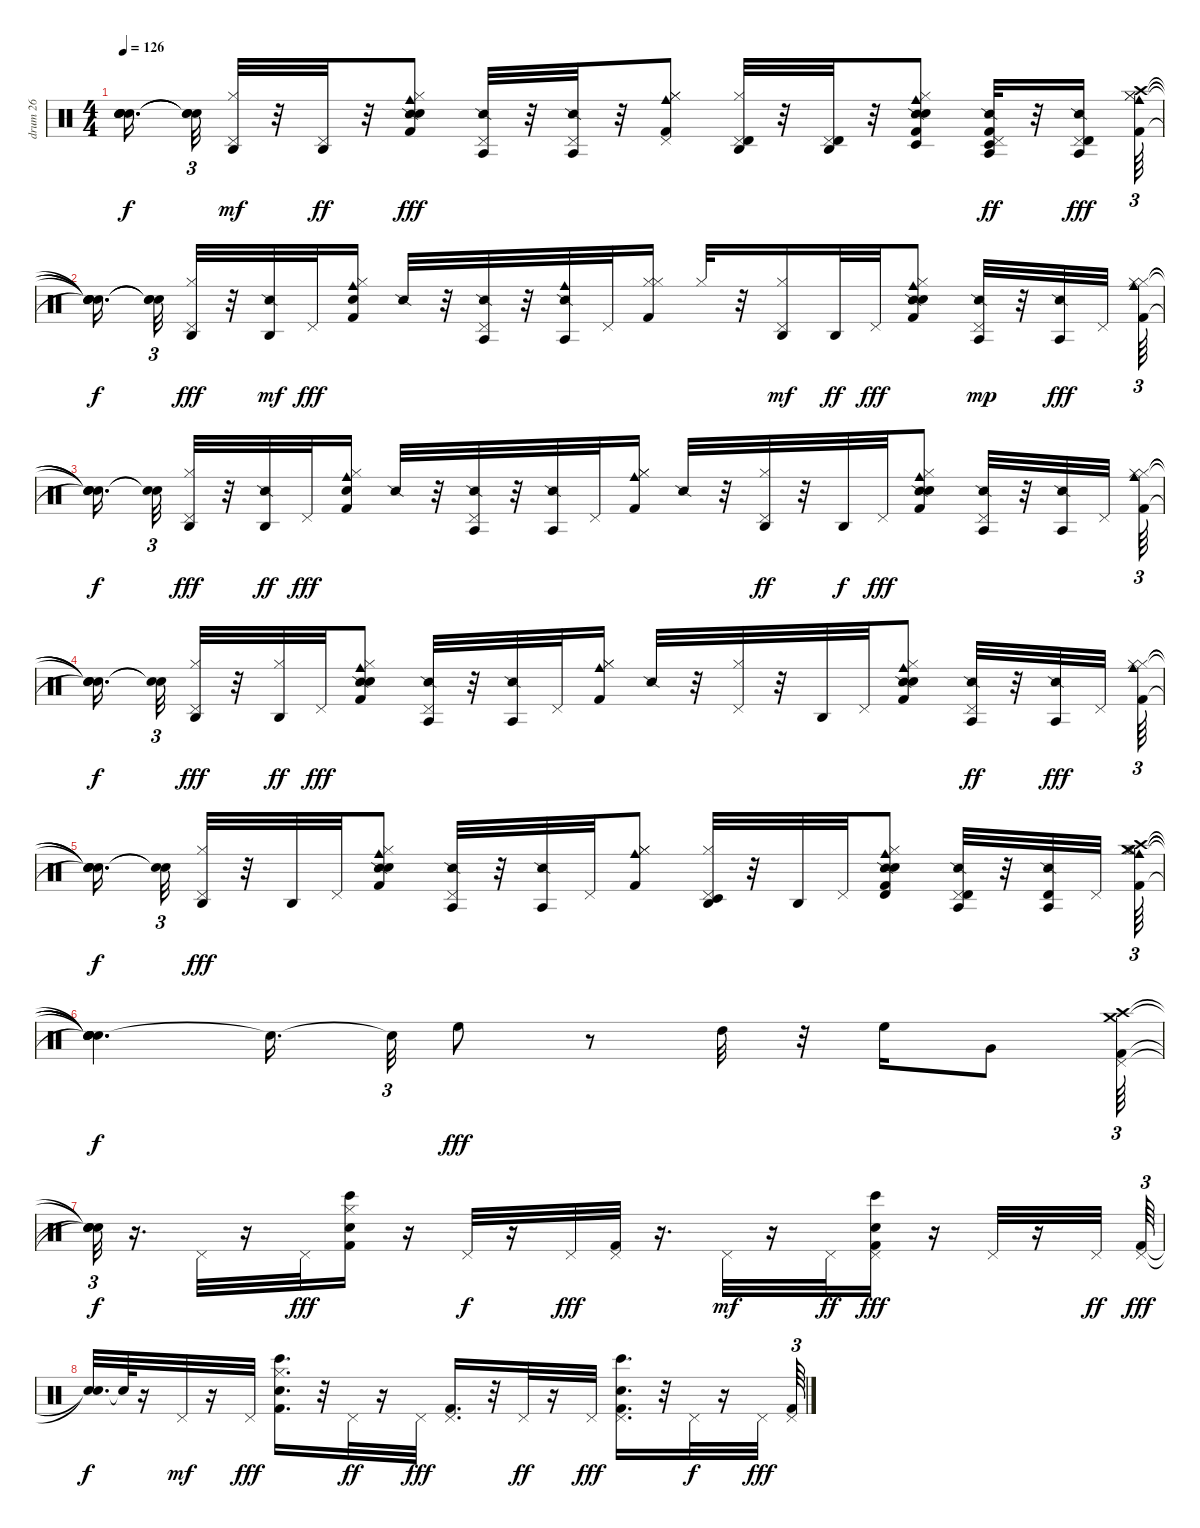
\track ("drum 26" "drum 26") {instrument percussion}
\staff {score}
\articulation defaults
\ts (4 4)
\tempo 126
\clef neutral
\ks c
("Snare (hit)"{t} "Snare (hit)"{t} "Snare (hit)"{t} "Snare (hit)"{t} "Snare (hit)"{t}).16{d dy f beam splitsecondary} ("Snare (hit)"{t} "Snare (hit)"{t} "Snare (hit)"{t}).32{tu (3 2)} ("Hi-Hat (closed)" "Pedal Hi-Hat (hit)" "Agogo high (hit)").32{dy mf} r.32 ("Pedal Hi-Hat (hit)" "Agogo high (hit)").32{dy ff} r.32 ("Snare (side stick) 2" "Kick (hit) 2" "Hand Clap (hit)" "Hi-Hat (closed)" "Cowbell medium (hit)").8{dy fff} ("Snare (side stick) 2" "Pedal Hi-Hat (hit)" "Agogo tow (hit)").32 r.32 ("Snare (side stick) 2" "Pedal Hi-Hat (hit)" "Agogo tow (hit)").32 r.32 ("Hi-Hat (closed)" "Kick (hit) 2" "Hi-Hat (closed)" "Pedal Hi-Hat (hit)" "Cowbell medium (hit)").8 ("Hi-Hat (closed)" "Pedal Hi-Hat (hit)" "Timbale high (hit)" "Agogo high (hit)").32 r.32 ("Pedal Hi-Hat (hit)" "Timbale high (hit)" "Agogo high (hit)").32 r.32 ("Snare (side stick) 2" "Kick (hit) 2" "Hand Clap (hit)" "Hi-Hat (closed)" "Cowbell medium (hit)" "Timbale low (hit)").8 ("Snare (side stick) 2" "Kick (hit) 2" "Pedal Hi-Hat (hit)" "Timbale low (hit)" "Agogo tow (hit)").32{dy ff} r.32 ("Snare (side stick) 2" "Pedal Hi-Hat (hit)" "Timbale high (hit)" "Agogo tow (hit)").16{dy fff} ("Hi-Hat (closed)" "Kick (hit) 2" "Hi-Hat (closed)" "Crash high (hit)" "Cowbell medium (hit)").64{tu (3 2)} |
("Snare (hit)"{t} "Snare (hit)"{t} "Snare (hit)"{t} "Snare (hit)"{t} "Snare (hit)"{t}).16{d dy f beam splitsecondary} ("Snare (hit)"{t} "Snare (hit)"{t} "Snare (hit)"{t}).32{tu (3 2)} ("Hi-Hat (closed)" "Pedal Hi-Hat (hit)" "Agogo high (hit)").32{dy fff} r.32 ("Snare (side stick) 2" "Agogo high (hit)").32{dy mf} "Pedal Hi-Hat (hit)".32{dy fff} ("Kick (hit) 2" "Hand Clap (hit)" "Hi-Hat (closed)" "Cowbell medium (hit)").16 "Snare (side stick) 2".32 r.32 ("Snare (side stick) 2" "Pedal Hi-Hat (hit)" "Agogo tow (hit)").32 r.32 ("Snare (side stick) 2" "Cowbell medium (hit)" "Agogo tow (hit)").32 "Pedal Hi-Hat (hit)".32 ("Hi-Hat (closed)" "Kick (hit) 2" "Hi-Hat (closed)").16 "Hi-Hat (closed)".32 r.32 ("Hi-Hat (closed)" "Pedal Hi-Hat (hit)" "Agogo high (hit)").16{dy mf} "Agogo high (hit)".32{dy ff} "Pedal Hi-Hat (hit)".32{dy fff} ("Snare (side stick) 2" "Kick (hit) 2" "Hand Clap (hit)" "Hi-Hat (closed)" "Cowbell medium (hit)").8 ("Snare (side stick) 2" "Pedal Hi-Hat (hit)" "Agogo tow (hit)").32{dy mp} r.32 ("Snare (side stick) 2" "Agogo tow (hit)").32{dy fff} "Pedal Hi-Hat (hit)".32{beam splitsecondary} ("Hi-Hat (closed)" "Kick (hit) 2" "Hi-Hat (closed)" "Cowbell medium (hit)").64{tu (3 2)} |
("Snare (hit)"{t} "Snare (hit)"{t} "Snare (hit)"{t} "Snare (hit)"{t}).16{d dy f beam splitsecondary} ("Snare (hit)"{t} "Snare (hit)"{t}).32{tu (3 2)} ("Hi-Hat (closed)" "Pedal Hi-Hat (hit)" "Agogo high (hit)").32{dy fff} r.32 ("Snare (side stick) 2" "Agogo high (hit)").32{dy ff} "Pedal Hi-Hat (hit)".32{dy fff} ("Kick (hit) 2" "Hand Clap (hit)" "Hi-Hat (closed)" "Cowbell medium (hit)").16 "Snare (side stick) 2".32 r.32 ("Snare (side stick) 2" "Pedal Hi-Hat (hit)" "Agogo tow (hit)").32 r.32 ("Snare (side stick) 2" "Agogo tow (hit)").32 "Pedal Hi-Hat (hit)".32 ("Hi-Hat (closed)" "Kick (hit) 2" "Hi-Hat (closed)" "Cowbell medium (hit)").16 "Snare (side stick) 2".32 r.32 ("Hi-Hat (closed)" "Pedal Hi-Hat (hit)" "Agogo high (hit)").32{dy ff} r.32 "Agogo high (hit)".32{dy f} "Pedal Hi-Hat (hit)".32{dy fff} ("Snare (side stick) 2" "Kick (hit) 2" "Hand Clap (hit)" "Hi-Hat (closed)" "Cowbell medium (hit)").8 ("Snare (side stick) 2" "Pedal Hi-Hat (hit)" "Agogo tow (hit)").32 r.32 ("Snare (side stick) 2" "Agogo tow (hit)").32 "Pedal Hi-Hat (hit)".32{beam splitsecondary} ("Hi-Hat (closed)" "Kick (hit) 2" "Hi-Hat (closed)" "Cowbell medium (hit)").64{tu (3 2)} |
("Snare (hit)"{t} "Snare (hit)"{t} "Snare (hit)"{t} "Snare (hit)"{t}).16{d dy f beam splitsecondary} ("Snare (hit)"{t} "Snare (hit)"{t}).32{tu (3 2)} ("Hi-Hat (closed)" "Pedal Hi-Hat (hit)" "Agogo high (hit)").32{dy fff} r.32 ("Hi-Hat (closed)" "Agogo high (hit)").32{dy ff} "Pedal Hi-Hat (hit)".32{dy fff} ("Snare (side stick) 2" "Kick (hit) 2" "Hand Clap (hit)" "Hi-Hat (closed)" "Cowbell medium (hit)").8 ("Snare (side stick) 2" "Pedal Hi-Hat (hit)" "Agogo tow (hit)").32 r.32 ("Snare (side stick) 2" "Agogo tow (hit)").32 "Pedal Hi-Hat (hit)".32 ("Hi-Hat (closed)" "Kick (hit) 2" "Hi-Hat (closed)" "Cowbell medium (hit)").16 "Snare (side stick) 2".32 r.32 ("Hi-Hat (closed)" "Pedal Hi-Hat (hit)").32 r.32 "Agogo high (hit)".32 "Pedal Hi-Hat (hit)".32 ("Snare (side stick) 2" "Kick (hit) 2" "Hand Clap (hit)" "Hi-Hat (closed)" "Cowbell medium (hit)").8 ("Snare (side stick) 2" "Pedal Hi-Hat (hit)" "Agogo tow (hit)").32{dy ff} r.32 ("Snare (side stick) 2" "Agogo tow (hit)").32{dy fff} "Pedal Hi-Hat (hit)".32{beam splitsecondary} ("Hi-Hat (closed)" "Kick (hit) 2" "Hi-Hat (closed)" "Cowbell medium (hit)").64{tu (3 2)} |
("Snare (hit)"{t} "Snare (hit)"{t} "Snare (hit)"{t} "Snare (hit)"{t}).16{d dy f beam splitsecondary} ("Snare (hit)"{t} "Snare (hit)"{t}).32{tu (3 2)} ("Hi-Hat (closed)" "Pedal Hi-Hat (hit)" "Agogo high (hit)").32{dy fff} r.32 "Agogo high (hit)".32 "Pedal Hi-Hat (hit)".32 ("Snare (side stick) 2" "Kick (hit) 2" "Hand Clap (hit)" "Hi-Hat (closed)" "Cowbell medium (hit)").8 ("Snare (side stick) 2" "Pedal Hi-Hat (hit)" "Agogo tow (hit)").32 r.32 ("Snare (side stick) 2" "Agogo tow (hit)").32 "Pedal Hi-Hat (hit)".32 ("Hi-Hat (closed)" "Kick (hit) 2" "Hi-Hat (closed)" "Cowbell medium (hit)").8 ("Hi-Hat (closed)" "Pedal Hi-Hat (hit)" "Timbale low (hit)" "Agogo high (hit)").32 r.32 "Agogo high (hit)".32 "Pedal Hi-Hat (hit)".32 ("Snare (side stick) 2" "Kick (hit) 2" "Hand Clap (hit)" "Hi-Hat (closed)" "Cowbell medium (hit)" "Timbale high (hit)").8 ("Snare (side stick) 2" "Pedal Hi-Hat (hit)" "Timbale high (hit)" "Agogo tow (hit)").32 r.32 ("Snare (side stick) 2" "Timbale high (hit)" "Agogo tow (hit)").32 "Pedal Hi-Hat (hit)".32{beam splitsecondary} ("Hi-Hat (closed)" "Kick (hit) 2" "Hi-Hat (open)" "Crash high (hit)" "Cowbell medium (hit)" "Crash medium (hit)").64{tu (3 2)} |
("Snare (hit)"{t} "Snare (hit)"{t} "Snare (hit)"{t} "Snare (hit)"{t} "Snare (hit)"{t} "Snare (hit)"{t}).4{d dy f} "Snare (hit)"{t}.16{d beam splitsecondary} "Snare (hit)"{t}.32{tu (3 2)} "High Floor Tom (hit)".8{dy fff} r.8 "High Tom (hit)".32 r.32 "High Floor Tom (hit)".16 "Very Low Tom (hit)".8 ("Kick (hit) 2" "Pedal Hi-Hat (hit)" "Crash high (hit)" "Crash medium (hit)").64{tu (3 2)} |
("Snare (hit)"{t} "Snare (hit)"{t} "Snare (hit)"{t} "Snare (hit)"{t}).32{tu (3 2) dy f} r.16{d} "Pedal Hi-Hat (hit)".32 r.16 "Pedal Hi-Hat (hit)".32{dy fff} ("Bongo High (hit)" "Kick (hit) 2" "Hand Clap (hit)" "Hi-Hat (closed)").16 r.16 "Pedal Hi-Hat (hit)".32{dy f} r.16 "Pedal Hi-Hat (hit)".32{dy fff} ("Kick (hit) 2" "Pedal Hi-Hat (hit)").32 r.16{d} "Pedal Hi-Hat (hit)".32{dy mf} r.16 "Pedal Hi-Hat (hit)".32{dy ff} ("Bongo High (hit)" "Kick (hit) 2" "Hand Clap (hit)" "Pedal Hi-Hat (hit)").16{dy fff} r.16 "Pedal Hi-Hat (hit)".32 r.16 "Pedal Hi-Hat (hit)".32{dy ff} ("Kick (hit) 2" "Pedal Hi-Hat (hit)").64{tu (3 2) dy fff} |
("Snare (hit)"{t} "Snare (hit)"{t}).32{d dy f} "Snare (hit)"{t}.64 r.16 "Pedal Hi-Hat (hit)".32{dy mf} r.16 "Pedal Hi-Hat (hit)".32{dy fff} ("Bongo High (hit)" "Kick (hit) 2" "Hand Clap (hit)" "Hi-Hat (closed)").16{d} r.32 "Pedal Hi-Hat (hit)".32{dy ff} r.16 "Pedal Hi-Hat (hit)".32{dy fff} ("Kick (hit) 2" "Pedal Hi-Hat (hit)").16{d} r.32 "Pedal Hi-Hat (hit)".32{dy ff} r.16 "Pedal Hi-Hat (hit)".32{dy fff} ("Bongo High (hit)" "Kick (hit) 2" "Hand Clap (hit)" "Pedal Hi-Hat (hit)").16{d} r.32 "Pedal Hi-Hat (hit)".32{dy f} r.16 "Pedal Hi-Hat (hit)".32{dy fff} ("Kick (hit) 2" "Pedal Hi-Hat (hit)").64{tu (3 2)}
